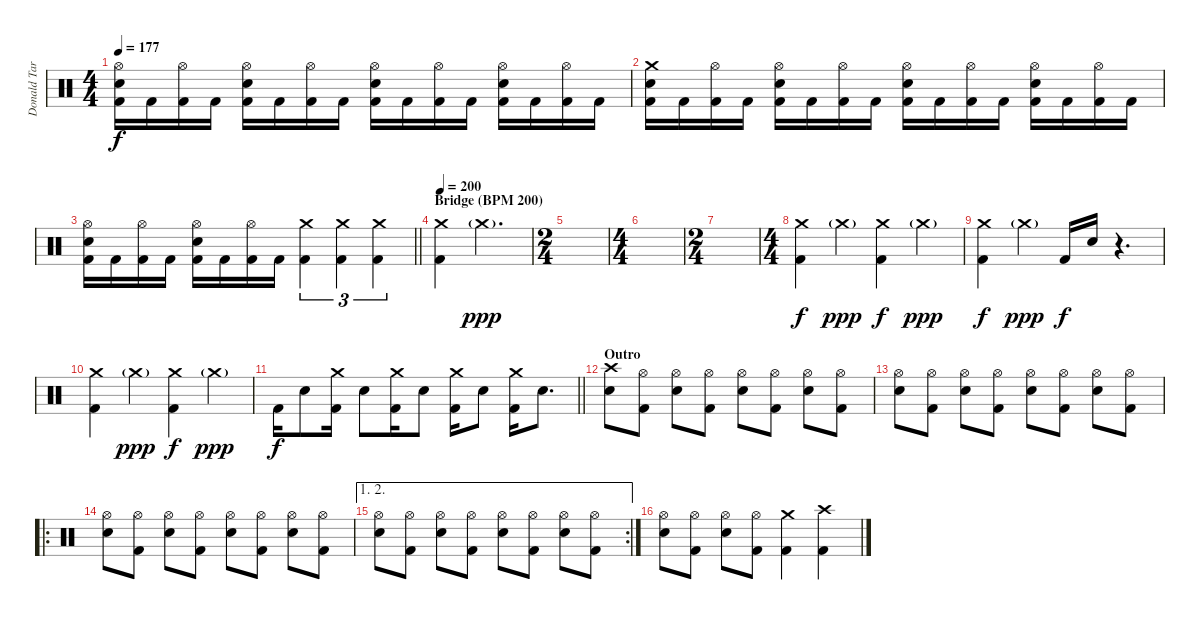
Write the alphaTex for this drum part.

\track ("Donald Tardy" "Donald Tar") {instrument percussion}
\staff {score}
\articulation defaults
\ts (4 4)
\tempo 177
\clef neutral
\ks c
("Hi-Hat (open)" "Snare (hit) 2" "Kick (hit) 2").16{dy f} "Kick (hit) 2".16 ("Hi-Hat (open)" "Kick (hit) 2").16 "Kick (hit) 2".16 ("Hi-Hat (open)" "Snare (hit) 2" "Kick (hit) 2").16 "Kick (hit) 2".16 ("Hi-Hat (open)" "Kick (hit) 2").16 "Kick (hit) 2".16 ("Hi-Hat (open)" "Snare (hit) 2" "Kick (hit) 2").16 "Kick (hit) 2".16 ("Hi-Hat (open)" "Kick (hit) 2").16 "Kick (hit) 2".16 ("Hi-Hat (open)" "Snare (hit) 2" "Kick (hit) 2").16 "Kick (hit) 2".16 ("Hi-Hat (open)" "Kick (hit) 2").16 "Kick (hit) 2".16 |
("Crash medium (hit)" "Snare (hit) 2" "Kick (hit) 2").16 "Kick (hit) 2".16 ("Hi-Hat (open)" "Kick (hit) 2").16 "Kick (hit) 2".16 ("Hi-Hat (open)" "Snare (hit) 2" "Kick (hit) 2").16 "Kick (hit) 2".16 ("Hi-Hat (open)" "Kick (hit) 2").16 "Kick (hit) 2".16 ("Hi-Hat (open)" "Snare (hit) 2" "Kick (hit) 2").16 "Kick (hit) 2".16 ("Hi-Hat (open)" "Kick (hit) 2").16 "Kick (hit) 2".16 ("Hi-Hat (open)" "Snare (hit) 2" "Kick (hit) 2").16 "Kick (hit) 2".16 ("Hi-Hat (open)" "Kick (hit) 2").16 "Kick (hit) 2".16 |
\barLineRight lightlight
("Hi-Hat (open)" "Snare (hit) 2" "Kick (hit) 2").16 "Kick (hit) 2".16 ("Hi-Hat (open)" "Kick (hit) 2").16 "Kick (hit) 2".16 ("Hi-Hat (open)" "Snare (hit) 2" "Kick (hit) 2").16 "Kick (hit) 2".16 ("Hi-Hat (open)" "Kick (hit) 2").16 "Kick (hit) 2".16 ("Crash medium (hit)" "Kick (hit) 2").4{tu (3 2)} ("Crash medium (hit)" "Kick (hit) 2").4{tu (3 2)} ("Crash medium (hit)" "Kick (hit) 2").4{tu (3 2)} |
\section ("" "Bridge (BPM 200)")
\tempo 200
("Crash medium (hit)" "Kick (hit) 2").4 "Crash medium (hit)"{g}.2{d dy ppp} |
\ts (2 4)
|
\ts (4 4)
|
\ts (2 4)
|
\ts (4 4)
("Crash medium (hit)" "Kick (hit) 2").4{dy f} "Crash medium (hit)"{g}.4{dy ppp} ("Crash medium (hit)" "Kick (hit) 2").4{dy f} "Crash medium (hit)"{g}.4{dy ppp} |
("Crash medium (hit)" "Kick (hit) 2").4{dy f} "Crash medium (hit)"{g}.4{dy ppp} "Kick (hit) 2".16{dy f} "Snare (hit) 2".16 r.4{d} |
("Crash medium (hit)" "Kick (hit) 2").4 "Crash medium (hit)"{g}.4{dy ppp} ("Crash medium (hit)" "Kick (hit) 2").4{dy f} "Crash medium (hit)"{g}.4{dy ppp} |
\barLineRight lightlight "Kick (hit) 2".16{dy f} "Snare (hit) 2".8
("Crash medium (hit)" "Kick (hit) 2").16 "Snare (hit) 2".8 ("Crash medium (hit)" "Kick (hit) 2").16 "Snare (hit) 2".8 ("Crash medium (hit)" "Kick (hit) 2").16 "Snare (hit) 2".8 ("Crash medium (hit)" "Kick (hit) 2").16 "Snare (hit) 2".8{d} |
\section ("" "Outro")
("Crash high (hit)" "Snare (hit) 2").8 ("Hi-Hat (open)" "Kick (hit) 2").8 ("Hi-Hat (open)" "Snare (hit) 2").8 ("Hi-Hat (open)" "Kick (hit) 2").8 ("Hi-Hat (open)" "Snare (hit) 2").8 ("Hi-Hat (open)" "Kick (hit) 2").8 ("Hi-Hat (open)" "Snare (hit) 2").8 ("Hi-Hat (open)" "Kick (hit) 2").8 |
("Hi-Hat (open)" "Snare (hit) 2").8 ("Hi-Hat (open)" "Kick (hit) 2").8 ("Hi-Hat (open)" "Snare (hit) 2").8 ("Hi-Hat (open)" "Kick (hit) 2").8 ("Hi-Hat (open)" "Snare (hit) 2").8 ("Hi-Hat (open)" "Kick (hit) 2").8 ("Hi-Hat (open)" "Snare (hit) 2").8 ("Hi-Hat (open)" "Kick (hit) 2").8 |
\ro
("Hi-Hat (open)" "Snare (hit) 2").8 ("Hi-Hat (open)" "Kick (hit) 2").8 ("Hi-Hat (open)" "Snare (hit) 2").8 ("Hi-Hat (open)" "Kick (hit) 2").8 ("Hi-Hat (open)" "Snare (hit) 2").8 ("Hi-Hat (open)" "Kick (hit) 2").8 ("Hi-Hat (open)" "Snare (hit) 2").8 ("Hi-Hat (open)" "Kick (hit) 2").8 |
\ae (1 2)
\rc 2
("Hi-Hat (open)" "Snare (hit) 2").8 ("Hi-Hat (open)" "Kick (hit) 2").8 ("Hi-Hat (open)" "Snare (hit) 2").8 ("Hi-Hat (open)" "Kick (hit) 2").8 ("Hi-Hat (open)" "Snare (hit) 2").8 ("Hi-Hat (open)" "Kick (hit) 2").8 ("Hi-Hat (open)" "Snare (hit) 2").8 ("Hi-Hat (open)" "Kick (hit) 2").8 |
("Hi-Hat (open)" "Snare (hit) 2").8 ("Hi-Hat (open)" "Kick (hit) 2").8 ("Hi-Hat (open)" "Snare (hit) 2").8 ("Hi-Hat (open)" "Kick (hit) 2").8 ("Crash medium (hit)" "Kick (hit) 2").4 ("Crash high (hit)" "Kick (hit) 2").4
